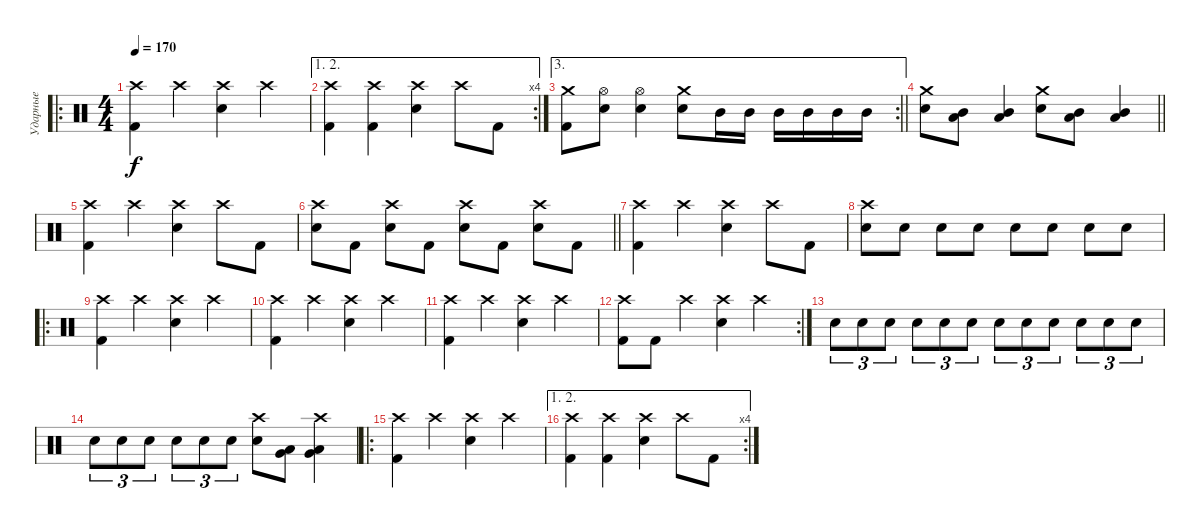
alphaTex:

\track ("Ударные" "Ударные") {instrument percussion}
\staff {score}
\articulation defaults
\ro
\ts (4 4)
\tempo 170
\clef neutral
\ks c
("Crash high (hit)" "Kick (hit) 2").4{dy f} "Crash high (hit)".4 ("Crash high (hit)" "Snare (hit) 2").4 "Crash high (hit)".4 |
\ae (1 2)
\rc 4
("Crash high (hit)" "Kick (hit) 2").4 ("Crash high (hit)" "Kick (hit) 2").4 ("Crash high (hit)" "Snare (hit) 2").4 "Crash high (hit)".8 "Kick (hit) 2".8 |
\ae 3
\rc 2
\barLineRight lightlight
("Crash medium (hit)" "Kick (hit) 2").8 ("Hi-Hat (open)" "Snare (hit) 2").8 ("Hi-Hat (open)" "Snare (hit) 2").4 ("Crash medium (hit)" "Snare (hit) 2").8 "Mid Tom (hit)".16 "Mid Tom (hit)".16 "Mid Tom (hit)".16 "Mid Tom (hit)".16 "Mid Tom (hit)".16 "Mid Tom (hit)".16 |
\barLineRight lightlight
("Crash medium (hit)" "Snare (hit) 2").8 ("Mid Tom (hit)" "Low Floor Tom (hit)").8 ("Mid Tom (hit)" "Low Floor Tom (hit)").4 ("Crash medium (hit)" "Snare (hit) 2").8 ("Mid Tom (hit)" "Low Floor Tom (hit)").8 ("Mid Tom (hit)" "Low Floor Tom (hit)").4 |
("Crash high (hit)" "Kick (hit) 2").4 "Crash high (hit)".4 ("Crash high (hit)" "Snare (hit) 2").4 "Crash high (hit)".8 "Kick (hit) 2".8 |
\barLineRight lightlight
("Crash high (hit)" "Snare (hit) 2").8 "Kick (hit) 2".8 ("Crash high (hit)" "Snare (hit) 2").8 "Kick (hit) 2".8 ("Crash high (hit)" "Snare (hit) 2").8 "Kick (hit) 2".8 ("Crash high (hit)" "Snare (hit) 2").8 "Kick (hit) 2".8 |
("Crash high (hit)" "Kick (hit) 2").4 "Crash high (hit)".4 ("Crash high (hit)" "Snare (hit) 2").4 "Crash high (hit)".8 "Kick (hit) 2".8 |
("Crash high (hit)" "Snare (hit) 2").8 "Snare (hit) 2".8 "Snare (hit) 2".8 "Snare (hit) 2".8 "Snare (hit) 2".8 "Snare (hit) 2".8 "Snare (hit) 2".8 "Snare (hit) 2".8 |
\ro
("Crash high (hit)" "Kick (hit) 2").4 "Crash high (hit)".4 ("Crash high (hit)" "Snare (hit) 2").4 "Crash high (hit)".4 |
("Crash high (hit)" "Kick (hit) 2").4 "Crash high (hit)".4 ("Crash high (hit)" "Snare (hit) 2").4 "Crash high (hit)".4 |
("Crash high (hit)" "Kick (hit) 2").4 "Crash high (hit)".4 ("Crash high (hit)" "Snare (hit) 2").4 "Crash high (hit)".4 |
\rc 2
("Crash high (hit)" "Kick (hit) 2").8 "Kick (hit) 2".8 "Crash high (hit)".4 ("Crash high (hit)" "Snare (hit) 2").4 "Crash high (hit)".4 |
"Snare (hit) 2".8{tu (3 2)} "Snare (hit) 2".8{tu (3 2)} "Snare (hit) 2".8{tu (3 2)} "Snare (hit) 2".8{tu (3 2)} "Snare (hit) 2".8{tu (3 2)} "Snare (hit) 2".8{tu (3 2)} "Snare (hit) 2".8{tu (3 2)} "Snare (hit) 2".8{tu (3 2)} "Snare (hit) 2".8{tu (3 2)} "Snare (hit) 2".8{tu (3 2)} "Snare (hit) 2".8{tu (3 2)} "Snare (hit) 2".8{tu (3 2)} |
"Snare (hit) 2".8{tu (3 2)} "Snare (hit) 2".8{tu (3 2)} "Snare (hit) 2".8{tu (3 2)} "Snare (hit) 2".8{tu (3 2)} "Snare (hit) 2".8{tu (3 2)} "Snare (hit) 2".8{tu (3 2)} ("Crash high (hit)" "Snare (hit) 2").8 ("Very Low Tom (hit)" "Low Floor Tom (hit)").8 ("Crash high (hit)" "Very Low Tom (hit)" "Low Floor Tom (hit)").4 |
\ro
("Crash high (hit)" "Kick (hit) 2").4 "Crash high (hit)".4 ("Crash high (hit)" "Snare (hit) 2").4 "Crash high (hit)".4 |
\ae (1 2)
\rc 4
("Crash high (hit)" "Kick (hit) 2").4 ("Crash high (hit)" "Kick (hit) 2").4 ("Crash high (hit)" "Snare (hit) 2").4 "Crash high (hit)".8 "Kick (hit) 2".8
